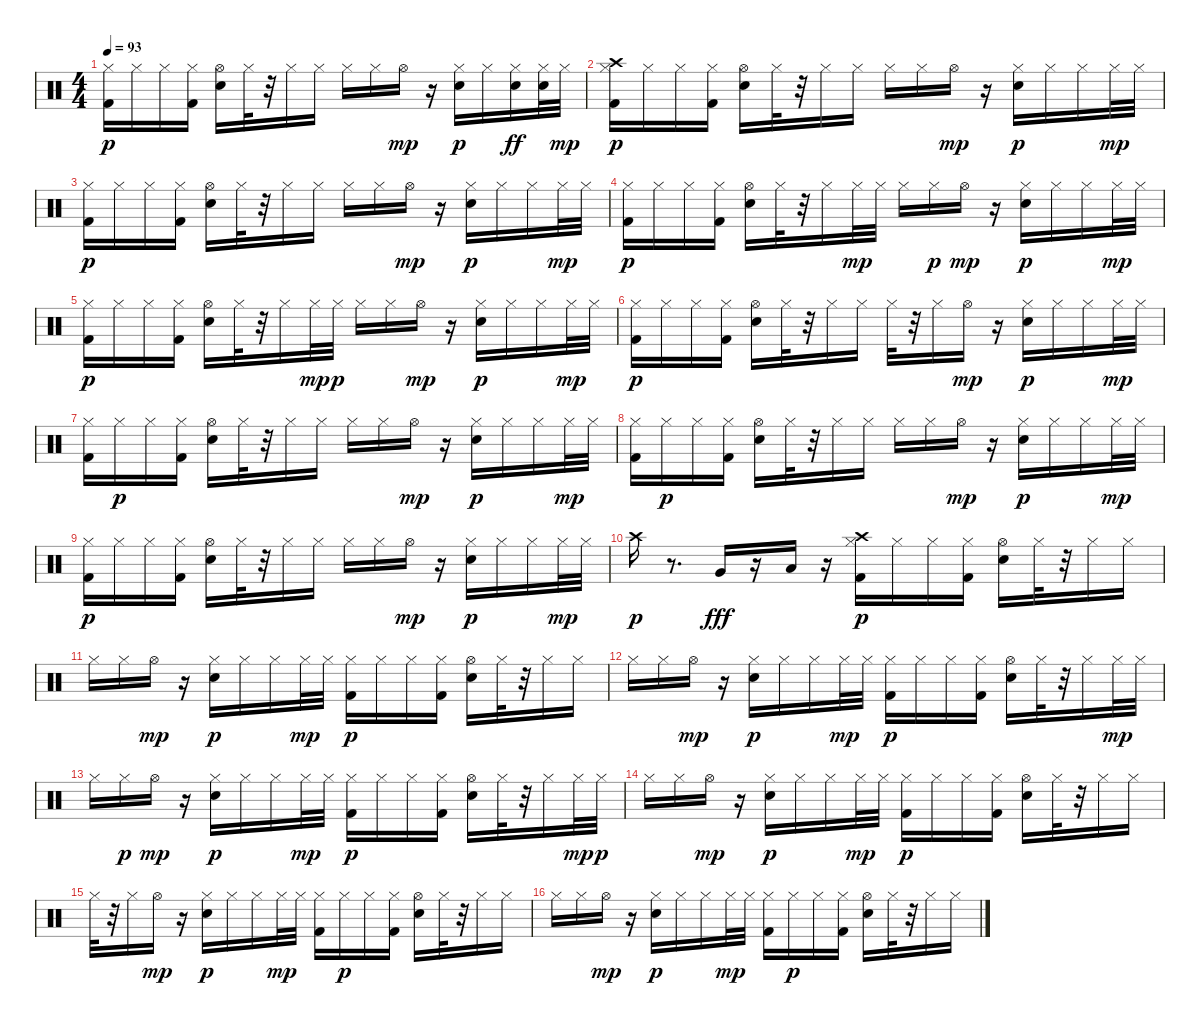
\track "" {instrument percussion}
\staff {score}
\articulation defaults
\ts (4 4)
\tempo 93
\clef neutral
\ks c
("Hi-Hat (closed)" "Kick (hit) 2").16{dy p} "Hi-Hat (closed)".16 "Hi-Hat (closed)".16 ("Hi-Hat (closed)" "Kick (hit) 2").16 ("Hi-Hat (open)" "Snare (hit) 2").16 "Hi-Hat (closed)".32 r.32 "Hi-Hat (closed)".16 "Hi-Hat (closed)".16 "Hi-Hat (closed)".16 "Hi-Hat (closed)".16 "Hi-Hat (open)".16{dy mp} r.16 ("Hi-Hat (closed)" "Snare (hit) 2").16{dy p} "Hi-Hat (closed)".16 ("Hi-Hat (closed)" "Electric Snare (hit)").16{dy ff} ("Hi-Hat (closed)" "Electric Snare (hit)").32 "Hi-Hat (closed)".32{dy mp} |
("Hi-Hat (closed)" "Kick (hit) 2" "Crash high (hit)").16{dy p} "Hi-Hat (closed)".16 "Hi-Hat (closed)".16 ("Hi-Hat (closed)" "Kick (hit) 2").16 ("Hi-Hat (open)" "Snare (hit) 2").16 "Hi-Hat (closed)".32 r.32 "Hi-Hat (closed)".16 "Hi-Hat (closed)".16 "Hi-Hat (closed)".16 "Hi-Hat (closed)".16 "Hi-Hat (open)".16{dy mp} r.16 ("Hi-Hat (closed)" "Snare (hit) 2").16{dy p} "Hi-Hat (closed)".16 "Hi-Hat (closed)".16 "Hi-Hat (closed)".32{dy mp} "Hi-Hat (closed)".32 |
("Hi-Hat (closed)" "Kick (hit) 2").16{dy p} "Hi-Hat (closed)".16 "Hi-Hat (closed)".16 ("Hi-Hat (closed)" "Kick (hit) 2").16 ("Hi-Hat (open)" "Snare (hit) 2").16 "Hi-Hat (closed)".32 r.32 "Hi-Hat (closed)".16 "Hi-Hat (closed)".16 "Hi-Hat (closed)".16 "Hi-Hat (closed)".16 "Hi-Hat (open)".16{dy mp} r.16 ("Hi-Hat (closed)" "Snare (hit) 2").16{dy p} "Hi-Hat (closed)".16 "Hi-Hat (closed)".16 "Hi-Hat (closed)".32{dy mp} "Hi-Hat (closed)".32 |
("Hi-Hat (closed)" "Kick (hit) 2").16{dy p} "Hi-Hat (closed)".16 "Hi-Hat (closed)".16 ("Hi-Hat (closed)" "Kick (hit) 2").16 ("Hi-Hat (open)" "Snare (hit) 2").16 "Hi-Hat (closed)".32 r.32 "Hi-Hat (closed)".16 "Hi-Hat (closed)".32{dy mp} "Hi-Hat (closed)".32 "Hi-Hat (closed)".16 "Hi-Hat (closed)".16{dy p} "Hi-Hat (open)".16{dy mp} r.16 ("Hi-Hat (closed)" "Snare (hit) 2").16{dy p} "Hi-Hat (closed)".16 "Hi-Hat (closed)".16 "Hi-Hat (closed)".32{dy mp} "Hi-Hat (closed)".32 |
("Hi-Hat (closed)" "Kick (hit) 2").16{dy p} "Hi-Hat (closed)".16 "Hi-Hat (closed)".16 ("Hi-Hat (closed)" "Kick (hit) 2").16 ("Hi-Hat (open)" "Snare (hit) 2").16 "Hi-Hat (closed)".32 r.32 "Hi-Hat (closed)".16 "Hi-Hat (closed)".32{dy mp} "Hi-Hat (closed)".32{dy p} "Hi-Hat (closed)".16 "Hi-Hat (closed)".16 "Hi-Hat (open)".16{dy mp} r.16 ("Hi-Hat (closed)" "Snare (hit) 2").16{dy p} "Hi-Hat (closed)".16 "Hi-Hat (closed)".16 "Hi-Hat (closed)".32{dy mp} "Hi-Hat (closed)".32 |
("Hi-Hat (closed)" "Kick (hit) 2").16{dy p} "Hi-Hat (closed)".16 "Hi-Hat (closed)".16 ("Hi-Hat (closed)" "Kick (hit) 2").16 ("Hi-Hat (open)" "Snare (hit) 2").16 "Hi-Hat (closed)".32 r.32 "Hi-Hat (closed)".16 "Hi-Hat (closed)".16 "Hi-Hat (closed)".32 r.32 "Hi-Hat (closed)".16 "Hi-Hat (open)".16{dy mp} r.16 ("Hi-Hat (closed)" "Snare (hit) 2").16{dy p} "Hi-Hat (closed)".16 "Hi-Hat (closed)".16 "Hi-Hat (closed)".32{dy mp} "Hi-Hat (closed)".32 |
("Hi-Hat (closed)" "Kick (hit) 2").16 "Hi-Hat (closed)".16{dy p} "Hi-Hat (closed)".16 ("Hi-Hat (closed)" "Kick (hit) 2").16 ("Hi-Hat (open)" "Snare (hit) 2").16 "Hi-Hat (closed)".32 r.32 "Hi-Hat (closed)".16 "Hi-Hat (closed)".16 "Hi-Hat (closed)".16 "Hi-Hat (closed)".16 "Hi-Hat (open)".16{dy mp} r.16 ("Hi-Hat (closed)" "Snare (hit) 2").16{dy p} "Hi-Hat (closed)".16 "Hi-Hat (closed)".16 "Hi-Hat (closed)".32{dy mp} "Hi-Hat (closed)".32 |
("Hi-Hat (closed)" "Kick (hit) 2").16 "Hi-Hat (closed)".16{dy p} "Hi-Hat (closed)".16 ("Hi-Hat (closed)" "Kick (hit) 2").16 ("Hi-Hat (open)" "Snare (hit) 2").16 "Hi-Hat (closed)".32 r.32 "Hi-Hat (closed)".16 "Hi-Hat (closed)".16 "Hi-Hat (closed)".16 "Hi-Hat (closed)".16 "Hi-Hat (open)".16{dy mp} r.16 ("Hi-Hat (closed)" "Snare (hit) 2").16{dy p} "Hi-Hat (closed)".16 "Hi-Hat (closed)".16 "Hi-Hat (closed)".32{dy mp} "Hi-Hat (closed)".32 |
("Hi-Hat (closed)" "Kick (hit) 2").16{dy p} "Hi-Hat (closed)".16 "Hi-Hat (closed)".16 ("Hi-Hat (closed)" "Kick (hit) 2").16 ("Hi-Hat (open)" "Snare (hit) 2").16 "Hi-Hat (closed)".32 r.32 "Hi-Hat (closed)".16 "Hi-Hat (closed)".16 "Hi-Hat (closed)".16 "Hi-Hat (closed)".16 "Hi-Hat (open)".16{dy mp} r.16 ("Hi-Hat (closed)" "Snare (hit) 2").16{dy p} "Hi-Hat (closed)".16 "Hi-Hat (closed)".16 "Hi-Hat (closed)".32{dy mp} "Hi-Hat (closed)".32 |
"Crash high (hit)".16{dy p} r.8{d} "Very Low Tom (hit)".16{dy fff} r.16 "Low Floor Tom (hit)".16 r.16 ("Hi-Hat (closed)" "Crash high (hit)" "Kick (hit) 2").16{dy p} "Hi-Hat (closed)".16 "Hi-Hat (closed)".16 ("Hi-Hat (closed)" "Kick (hit) 2").16 ("Hi-Hat (open)" "Snare (hit) 2").16 "Hi-Hat (closed)".32 r.32 "Hi-Hat (closed)".16 "Hi-Hat (closed)".16 |
"Hi-Hat (closed)".16 "Hi-Hat (closed)".16 "Hi-Hat (open)".16{dy mp} r.16 ("Hi-Hat (closed)" "Snare (hit) 2").16{dy p} "Hi-Hat (closed)".16 "Hi-Hat (closed)".16 "Hi-Hat (closed)".32{dy mp} "Hi-Hat (closed)".32 ("Hi-Hat (closed)" "Kick (hit) 2").16{dy p} "Hi-Hat (closed)".16 "Hi-Hat (closed)".16 ("Hi-Hat (closed)" "Kick (hit) 2").16 ("Hi-Hat (open)" "Snare (hit) 2").16 "Hi-Hat (closed)".32 r.32 "Hi-Hat (closed)".16 "Hi-Hat (closed)".16 |
"Hi-Hat (closed)".16 "Hi-Hat (closed)".16 "Hi-Hat (open)".16{dy mp} r.16 ("Hi-Hat (closed)" "Snare (hit) 2").16{dy p} "Hi-Hat (closed)".16 "Hi-Hat (closed)".16 "Hi-Hat (closed)".32{dy mp} "Hi-Hat (closed)".32 ("Hi-Hat (closed)" "Kick (hit) 2").16{dy p} "Hi-Hat (closed)".16 "Hi-Hat (closed)".16 ("Hi-Hat (closed)" "Kick (hit) 2").16 ("Hi-Hat (open)" "Snare (hit) 2").16 "Hi-Hat (closed)".32 r.32 "Hi-Hat (closed)".16 "Hi-Hat (closed)".32{dy mp} "Hi-Hat (closed)".32 |
"Hi-Hat (closed)".16 "Hi-Hat (closed)".16{dy p} "Hi-Hat (open)".16{dy mp} r.16 ("Hi-Hat (closed)" "Snare (hit) 2").16{dy p} "Hi-Hat (closed)".16 "Hi-Hat (closed)".16 "Hi-Hat (closed)".32{dy mp} "Hi-Hat (closed)".32 ("Hi-Hat (closed)" "Kick (hit) 2").16{dy p} "Hi-Hat (closed)".16 "Hi-Hat (closed)".16 ("Hi-Hat (closed)" "Kick (hit) 2").16 ("Hi-Hat (open)" "Snare (hit) 2").16 "Hi-Hat (closed)".32 r.32 "Hi-Hat (closed)".16 "Hi-Hat (closed)".32{dy mp} "Hi-Hat (closed)".32{dy p} |
"Hi-Hat (closed)".16 "Hi-Hat (closed)".16 "Hi-Hat (open)".16{dy mp} r.16 ("Hi-Hat (closed)" "Snare (hit) 2").16{dy p} "Hi-Hat (closed)".16 "Hi-Hat (closed)".16 "Hi-Hat (closed)".32{dy mp} "Hi-Hat (closed)".32 ("Hi-Hat (closed)" "Kick (hit) 2").16{dy p} "Hi-Hat (closed)".16 "Hi-Hat (closed)".16 ("Hi-Hat (closed)" "Kick (hit) 2").16 ("Hi-Hat (open)" "Snare (hit) 2").16 "Hi-Hat (closed)".32 r.32 "Hi-Hat (closed)".16 "Hi-Hat (closed)".16 |
"Hi-Hat (closed)".32 r.32 "Hi-Hat (closed)".16 "Hi-Hat (open)".16{dy mp} r.16 ("Hi-Hat (closed)" "Snare (hit) 2").16{dy p} "Hi-Hat (closed)".16 "Hi-Hat (closed)".16 "Hi-Hat (closed)".32{dy mp} "Hi-Hat (closed)".32 ("Hi-Hat (closed)" "Kick (hit) 2").16 "Hi-Hat (closed)".16{dy p} "Hi-Hat (closed)".16 ("Hi-Hat (closed)" "Kick (hit) 2").16 ("Hi-Hat (open)" "Snare (hit) 2").16 "Hi-Hat (closed)".32 r.32 "Hi-Hat (closed)".16 "Hi-Hat (closed)".16 |
"Hi-Hat (closed)".16 "Hi-Hat (closed)".16 "Hi-Hat (open)".16{dy mp} r.16 ("Hi-Hat (closed)" "Snare (hit) 2").16{dy p} "Hi-Hat (closed)".16 "Hi-Hat (closed)".16 "Hi-Hat (closed)".32{dy mp} "Hi-Hat (closed)".32 ("Hi-Hat (closed)" "Kick (hit) 2").16 "Hi-Hat (closed)".16{dy p} "Hi-Hat (closed)".16 ("Hi-Hat (closed)" "Kick (hit) 2").16 ("Hi-Hat (open)" "Snare (hit) 2").16 "Hi-Hat (closed)".32 r.32 "Hi-Hat (closed)".16 "Hi-Hat (closed)".16
